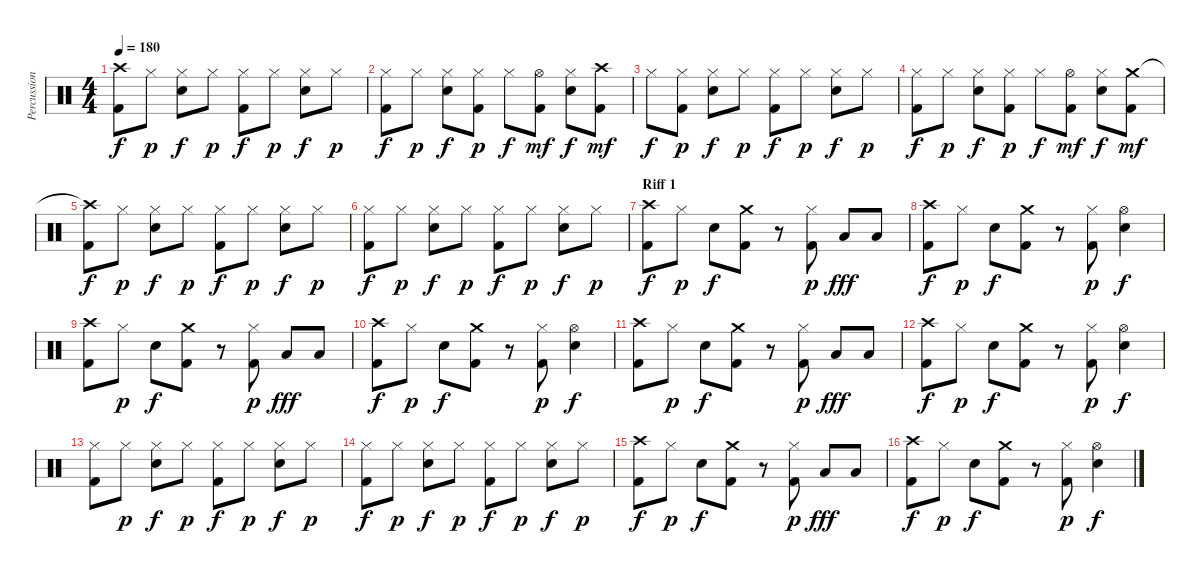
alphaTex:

\track ("Percussions" "Percussion") {instrument percussion}
\staff {score}
\articulation defaults
\ts (4 4)
\tempo 180
\clef neutral
\ks c
("Crash high (hit)"{t} "Kick (hit) 2").8{dy f} "Hi-Hat (closed)".8{dy p} ("Hi-Hat (closed)" "Electric Snare (hit)").8{dy f} "Hi-Hat (closed)".8{dy p} ("Hi-Hat (closed)" "Kick (hit) 2").8{dy f} "Hi-Hat (closed)".8{dy p} ("Hi-Hat (closed)" "Electric Snare (hit)").8{dy f} "Hi-Hat (closed)".8{dy p} |
("Hi-Hat (closed)" "Kick (hit) 2").8{dy f} "Hi-Hat (closed)".8{dy p} ("Hi-Hat (closed)" "Electric Snare (hit)").8{dy f} ("Hi-Hat (closed)" "Kick (hit) 2").8{dy p} "Hi-Hat (closed)".8{dy f} ("Hi-Hat (open)" "Kick (hit) 2").8{dy mf} ("Hi-Hat (closed)" "Electric Snare (hit)").8{dy f} ("Crash high (hit)" "Kick (hit) 2").8{dy mf} |
"Hi-Hat (closed)".8{dy f} ("Hi-Hat (closed)" "Kick (hit) 2").8{dy p} ("Hi-Hat (closed)" "Electric Snare (hit)").8{dy f} "Hi-Hat (closed)".8{dy p} ("Hi-Hat (closed)" "Kick (hit) 2").8{dy f} "Hi-Hat (closed)".8{dy p} ("Hi-Hat (closed)" "Electric Snare (hit)").8{dy f} "Hi-Hat (closed)".8{dy p} |
("Hi-Hat (closed)" "Kick (hit) 2").8{dy f} "Hi-Hat (closed)".8{dy p} ("Hi-Hat (closed)" "Electric Snare (hit)").8{dy f} ("Hi-Hat (closed)" "Kick (hit) 2").8{dy p} "Hi-Hat (closed)".8{dy f} ("Hi-Hat (open)" "Kick (hit) 2").8{dy mf} ("Hi-Hat (closed)" "Electric Snare (hit)").8{dy f} ("Crash medium (hit)" "Kick (hit) 2").8{dy mf} |
("Crash high (hit)"{t} "Kick (hit) 2").8{dy f} "Hi-Hat (closed)".8{dy p} ("Hi-Hat (closed)" "Electric Snare (hit)").8{dy f} "Hi-Hat (closed)".8{dy p} ("Hi-Hat (closed)" "Kick (hit) 2").8{dy f} "Hi-Hat (closed)".8{dy p} ("Hi-Hat (closed)" "Electric Snare (hit)").8{dy f} "Hi-Hat (closed)".8{dy p} |
("Hi-Hat (closed)" "Kick (hit) 2").8{dy f} "Hi-Hat (closed)".8{dy p} ("Hi-Hat (closed)" "Electric Snare (hit)").8{dy f} "Hi-Hat (closed)".8{dy p} ("Hi-Hat (closed)" "Kick (hit) 2").8{dy f} "Hi-Hat (closed)".8{dy p} ("Hi-Hat (closed)" "Electric Snare (hit)").8{dy f} "Hi-Hat (closed)".8{dy p} |
\section ("" "Riff 1")
("Crash high (hit)" "Kick (hit) 2").8{dy f} "Hi-Hat (closed)".8{dy p} "Electric Snare (hit)".8{dy f} ("Crash medium (hit)" "Kick (hit) 2").8 r.8 ("Hi-Hat (closed)" "Kick (hit) 2").8{dy p} "Low Tom (hit)".8{dy fff} "Low Tom (hit)".8 |
("Crash high (hit)" "Kick (hit) 2").8{dy f} "Hi-Hat (closed)".8{dy p} "Electric Snare (hit)".8{dy f} ("Crash medium (hit)" "Kick (hit) 2").8 r.8 ("Hi-Hat (closed)" "Kick (hit) 2").8{dy p} ("Hi-Hat (open)" "Electric Snare (hit)").4{dy f} |
("Crash high (hit)" "Kick (hit) 2").8 "Hi-Hat (closed)".8{dy p} "Electric Snare (hit)".8{dy f} ("Crash medium (hit)" "Kick (hit) 2").8 r.8 ("Hi-Hat (closed)" "Kick (hit) 2").8{dy p} "Low Tom (hit)".8{dy fff} "Low Tom (hit)".8 |
("Crash high (hit)" "Kick (hit) 2").8{dy f} "Hi-Hat (closed)".8{dy p} "Electric Snare (hit)".8{dy f} ("Crash medium (hit)" "Kick (hit) 2").8 r.8 ("Hi-Hat (closed)" "Kick (hit) 2").8{dy p} ("Hi-Hat (open)" "Electric Snare (hit)").4{dy f} |
("Crash high (hit)" "Kick (hit) 2").8 "Hi-Hat (closed)".8{dy p} "Electric Snare (hit)".8{dy f} ("Crash medium (hit)" "Kick (hit) 2").8 r.8 ("Hi-Hat (closed)" "Kick (hit) 2").8{dy p} "Low Tom (hit)".8{dy fff} "Low Tom (hit)".8 |
("Crash high (hit)" "Kick (hit) 2").8{dy f} "Hi-Hat (closed)".8{dy p} "Electric Snare (hit)".8{dy f} ("Crash medium (hit)" "Kick (hit) 2").8 r.8 ("Hi-Hat (closed)" "Kick (hit) 2").8{dy p} ("Hi-Hat (open)" "Electric Snare (hit)").4{dy f} |
("Hi-Hat (closed)" "Kick (hit) 2").8 "Hi-Hat (closed)".8{dy p} ("Hi-Hat (closed)" "Electric Snare (hit)").8{dy f} "Hi-Hat (closed)".8{dy p} ("Hi-Hat (closed)" "Kick (hit) 2").8{dy f} "Hi-Hat (closed)".8{dy p} ("Hi-Hat (closed)" "Electric Snare (hit)").8{dy f} "Hi-Hat (closed)".8{dy p} |
("Hi-Hat (closed)" "Kick (hit) 2").8{dy f} "Hi-Hat (closed)".8{dy p} ("Hi-Hat (closed)" "Electric Snare (hit)").8{dy f} "Hi-Hat (closed)".8{dy p} ("Hi-Hat (closed)" "Kick (hit) 2").8{dy f} "Hi-Hat (closed)".8{dy p} ("Hi-Hat (closed)" "Electric Snare (hit)").8{dy f} "Hi-Hat (closed)".8{dy p} |
("Crash high (hit)" "Kick (hit) 2").8{dy f} "Hi-Hat (closed)".8{dy p} "Electric Snare (hit)".8{dy f} ("Crash medium (hit)" "Kick (hit) 2").8 r.8 ("Hi-Hat (closed)" "Kick (hit) 2").8{dy p} "Low Tom (hit)".8{dy fff} "Low Tom (hit)".8 |
("Crash high (hit)" "Kick (hit) 2").8{dy f} "Hi-Hat (closed)".8{dy p} "Electric Snare (hit)".8{dy f} ("Crash medium (hit)" "Kick (hit) 2").8 r.8 ("Hi-Hat (closed)" "Kick (hit) 2").8{dy p} ("Hi-Hat (open)" "Electric Snare (hit)").4{dy f}
